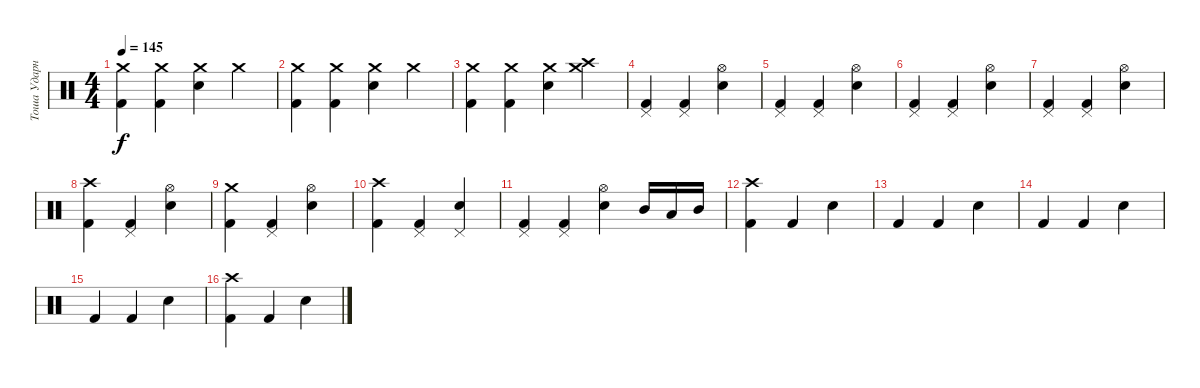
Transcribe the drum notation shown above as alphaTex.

\track ("Тоша Ударные" "Тоша Ударн") {instrument percussion}
\staff {score}
\articulation defaults
\ts (4 4)
\tempo 145
\clef neutral
\ks c
("Kick (hit) 2" "Crash medium (hit)").4{dy f} ("Kick (hit) 2" "Crash medium (hit)").4 ("Electric Snare (hit)" "Crash medium (hit)").4 "Crash medium (hit)".4 |
("Crash medium (hit)" "Kick (hit) 2").4 ("Crash medium (hit)" "Kick (hit) 2").4 ("Crash medium (hit)" "Electric Snare (hit)").4 "Crash medium (hit)".4 |
("Kick (hit) 2" "Crash medium (hit)").4 ("Kick (hit) 2" "Crash medium (hit)").4 ("Electric Snare (hit)" "Crash medium (hit)").4 ("Crash high (hit)" "Crash medium (hit)").4 |
("Kick (hit) 2" "Pedal Hi-Hat (hit)").4 ("Kick (hit) 2" "Pedal Hi-Hat (hit)").4 ("Electric Snare (hit)" "Hi-Hat (open)").4 |
("Kick (hit) 2" "Pedal Hi-Hat (hit)").4 ("Kick (hit) 2" "Pedal Hi-Hat (hit)").4 ("Electric Snare (hit)" "Hi-Hat (open)").4 |
("Kick (hit) 2" "Pedal Hi-Hat (hit)").4 ("Kick (hit) 2" "Pedal Hi-Hat (hit)").4 ("Electric Snare (hit)" "Hi-Hat (open)").4 |
("Kick (hit) 2" "Pedal Hi-Hat (hit)").4 ("Kick (hit) 2" "Pedal Hi-Hat (hit)").4 ("Electric Snare (hit)" "Hi-Hat (open)").4 |
("Kick (hit) 2" "Crash high (hit)").4 ("Kick (hit) 2" "Pedal Hi-Hat (hit)").4 ("Electric Snare (hit)" "Hi-Hat (open)").4 |
("Kick (hit) 2" "Crash medium (hit)").4 ("Kick (hit) 2" "Pedal Hi-Hat (hit)").4 ("Electric Snare (hit)" "Hi-Hat (open)").4 |
("Kick (hit) 2" "Crash high (hit)").4 ("Kick (hit) 2" "Pedal Hi-Hat (hit)").4 ("Electric Snare (hit)" "Pedal Hi-Hat (hit)").4 |
("Kick (hit) 2" "Pedal Hi-Hat (hit)").4 ("Kick (hit) 2" "Pedal Hi-Hat (hit)").4 ("Electric Snare (hit)" "Hi-Hat (open)").4 "Mid Tom (hit)".16 "Low Tom (hit)".16 "Mid Tom (hit)".16 |
("Kick (hit) 2" "Crash high (hit)").4 "Kick (hit) 2".4 "Electric Snare (hit)".4 |
"Kick (hit) 2".4 "Kick (hit) 2".4 "Electric Snare (hit)".4 |
"Kick (hit) 2".4 "Kick (hit) 2".4 "Electric Snare (hit)".4 |
"Kick (hit) 2".4 "Kick (hit) 2".4 "Electric Snare (hit)".4 |
("Kick (hit) 2" "Crash high (hit)").4 "Kick (hit) 2".4 "Electric Snare (hit)".4
